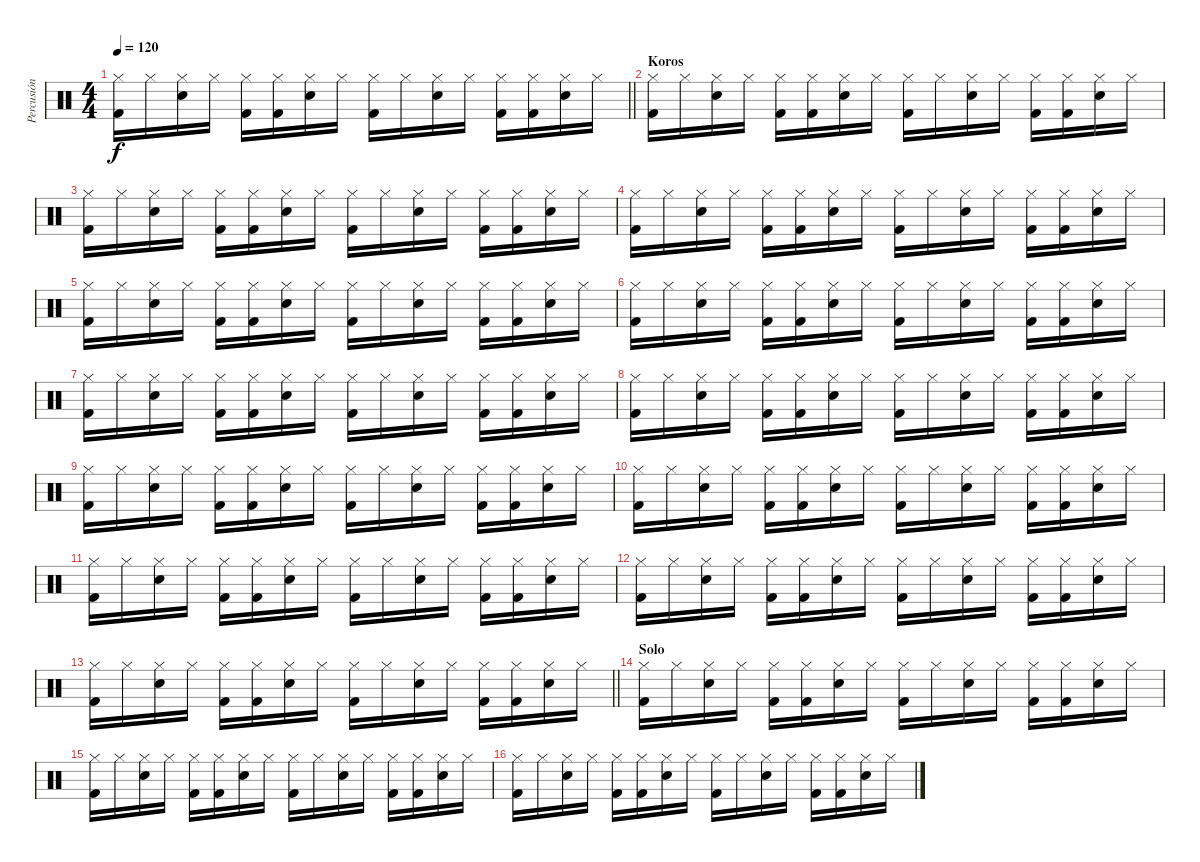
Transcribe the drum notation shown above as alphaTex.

\track ("Percusión" "Percusión") {instrument percussion}
\staff {score}
\articulation defaults
\ts (4 4)
\tempo 120
\clef neutral
\barLineRight lightlight
\ks c
("Kick (hit) 2" "Hi-Hat (closed)").16{dy f} "Hi-Hat (closed)".16 ("Electric Snare (hit)" "Hi-Hat (closed)").16 "Hi-Hat (closed)".16 ("Kick (hit) 2" "Hi-Hat (closed)").16 ("Kick (hit) 2" "Hi-Hat (closed)").16 ("Electric Snare (hit)" "Hi-Hat (closed)").16 "Hi-Hat (closed)".16 ("Kick (hit) 2" "Hi-Hat (closed)").16 "Hi-Hat (closed)".16 ("Electric Snare (hit)" "Hi-Hat (closed)").16 "Hi-Hat (closed)".16 ("Kick (hit) 2" "Hi-Hat (closed)").16 ("Kick (hit) 2" "Hi-Hat (closed)").16 ("Electric Snare (hit)" "Hi-Hat (closed)").16 "Hi-Hat (closed)".16 |
\section ("" "Koros")
("Kick (hit) 2" "Hi-Hat (closed)").16 "Hi-Hat (closed)".16 ("Electric Snare (hit)" "Hi-Hat (closed)").16 "Hi-Hat (closed)".16 ("Kick (hit) 2" "Hi-Hat (closed)").16 ("Kick (hit) 2" "Hi-Hat (closed)").16 ("Electric Snare (hit)" "Hi-Hat (closed)").16 "Hi-Hat (closed)".16 ("Kick (hit) 2" "Hi-Hat (closed)").16 "Hi-Hat (closed)".16 ("Electric Snare (hit)" "Hi-Hat (closed)").16 "Hi-Hat (closed)".16 ("Kick (hit) 2" "Hi-Hat (closed)").16 ("Kick (hit) 2" "Hi-Hat (closed)").16 ("Electric Snare (hit)" "Hi-Hat (closed)").16 "Hi-Hat (closed)".16 |
("Kick (hit) 2" "Hi-Hat (closed)").16 "Hi-Hat (closed)".16 ("Electric Snare (hit)" "Hi-Hat (closed)").16 "Hi-Hat (closed)".16 ("Kick (hit) 2" "Hi-Hat (closed)").16 ("Kick (hit) 2" "Hi-Hat (closed)").16 ("Electric Snare (hit)" "Hi-Hat (closed)").16 "Hi-Hat (closed)".16 ("Kick (hit) 2" "Hi-Hat (closed)").16 "Hi-Hat (closed)".16 ("Electric Snare (hit)" "Hi-Hat (closed)").16 "Hi-Hat (closed)".16 ("Kick (hit) 2" "Hi-Hat (closed)").16 ("Kick (hit) 2" "Hi-Hat (closed)").16 ("Electric Snare (hit)" "Hi-Hat (closed)").16 "Hi-Hat (closed)".16 |
("Kick (hit) 2" "Hi-Hat (closed)").16 "Hi-Hat (closed)".16 ("Electric Snare (hit)" "Hi-Hat (closed)").16 "Hi-Hat (closed)".16 ("Kick (hit) 2" "Hi-Hat (closed)").16 ("Kick (hit) 2" "Hi-Hat (closed)").16 ("Electric Snare (hit)" "Hi-Hat (closed)").16 "Hi-Hat (closed)".16 ("Kick (hit) 2" "Hi-Hat (closed)").16 "Hi-Hat (closed)".16 ("Electric Snare (hit)" "Hi-Hat (closed)").16 "Hi-Hat (closed)".16 ("Kick (hit) 2" "Hi-Hat (closed)").16 ("Kick (hit) 2" "Hi-Hat (closed)").16 ("Electric Snare (hit)" "Hi-Hat (closed)").16 "Hi-Hat (closed)".16 |
("Kick (hit) 2" "Hi-Hat (closed)").16 "Hi-Hat (closed)".16 ("Electric Snare (hit)" "Hi-Hat (closed)").16 "Hi-Hat (closed)".16 ("Kick (hit) 2" "Hi-Hat (closed)").16 ("Kick (hit) 2" "Hi-Hat (closed)").16 ("Electric Snare (hit)" "Hi-Hat (closed)").16 "Hi-Hat (closed)".16 ("Kick (hit) 2" "Hi-Hat (closed)").16 "Hi-Hat (closed)".16 ("Electric Snare (hit)" "Hi-Hat (closed)").16 "Hi-Hat (closed)".16 ("Kick (hit) 2" "Hi-Hat (closed)").16 ("Kick (hit) 2" "Hi-Hat (closed)").16 ("Electric Snare (hit)" "Hi-Hat (closed)").16 "Hi-Hat (closed)".16 |
("Kick (hit) 2" "Hi-Hat (closed)").16 "Hi-Hat (closed)".16 ("Electric Snare (hit)" "Hi-Hat (closed)").16 "Hi-Hat (closed)".16 ("Kick (hit) 2" "Hi-Hat (closed)").16 ("Kick (hit) 2" "Hi-Hat (closed)").16 ("Electric Snare (hit)" "Hi-Hat (closed)").16 "Hi-Hat (closed)".16 ("Kick (hit) 2" "Hi-Hat (closed)").16 "Hi-Hat (closed)".16 ("Electric Snare (hit)" "Hi-Hat (closed)").16 "Hi-Hat (closed)".16 ("Kick (hit) 2" "Hi-Hat (closed)").16 ("Kick (hit) 2" "Hi-Hat (closed)").16 ("Electric Snare (hit)" "Hi-Hat (closed)").16 "Hi-Hat (closed)".16 |
("Kick (hit) 2" "Hi-Hat (closed)").16 "Hi-Hat (closed)".16 ("Electric Snare (hit)" "Hi-Hat (closed)").16 "Hi-Hat (closed)".16 ("Kick (hit) 2" "Hi-Hat (closed)").16 ("Kick (hit) 2" "Hi-Hat (closed)").16 ("Electric Snare (hit)" "Hi-Hat (closed)").16 "Hi-Hat (closed)".16 ("Kick (hit) 2" "Hi-Hat (closed)").16 "Hi-Hat (closed)".16 ("Electric Snare (hit)" "Hi-Hat (closed)").16 "Hi-Hat (closed)".16 ("Kick (hit) 2" "Hi-Hat (closed)").16 ("Kick (hit) 2" "Hi-Hat (closed)").16 ("Electric Snare (hit)" "Hi-Hat (closed)").16 "Hi-Hat (closed)".16 |
("Kick (hit) 2" "Hi-Hat (closed)").16 "Hi-Hat (closed)".16 ("Electric Snare (hit)" "Hi-Hat (closed)").16 "Hi-Hat (closed)".16 ("Kick (hit) 2" "Hi-Hat (closed)").16 ("Kick (hit) 2" "Hi-Hat (closed)").16 ("Electric Snare (hit)" "Hi-Hat (closed)").16 "Hi-Hat (closed)".16 ("Kick (hit) 2" "Hi-Hat (closed)").16 "Hi-Hat (closed)".16 ("Electric Snare (hit)" "Hi-Hat (closed)").16 "Hi-Hat (closed)".16 ("Kick (hit) 2" "Hi-Hat (closed)").16 ("Kick (hit) 2" "Hi-Hat (closed)").16 ("Electric Snare (hit)" "Hi-Hat (closed)").16 "Hi-Hat (closed)".16 |
("Kick (hit) 2" "Hi-Hat (closed)").16 "Hi-Hat (closed)".16 ("Electric Snare (hit)" "Hi-Hat (closed)").16 "Hi-Hat (closed)".16 ("Kick (hit) 2" "Hi-Hat (closed)").16 ("Kick (hit) 2" "Hi-Hat (closed)").16 ("Electric Snare (hit)" "Hi-Hat (closed)").16 "Hi-Hat (closed)".16 ("Kick (hit) 2" "Hi-Hat (closed)").16 "Hi-Hat (closed)".16 ("Electric Snare (hit)" "Hi-Hat (closed)").16 "Hi-Hat (closed)".16 ("Kick (hit) 2" "Hi-Hat (closed)").16 ("Kick (hit) 2" "Hi-Hat (closed)").16 ("Electric Snare (hit)" "Hi-Hat (closed)").16 "Hi-Hat (closed)".16 |
("Kick (hit) 2" "Hi-Hat (closed)").16 "Hi-Hat (closed)".16 ("Electric Snare (hit)" "Hi-Hat (closed)").16 "Hi-Hat (closed)".16 ("Kick (hit) 2" "Hi-Hat (closed)").16 ("Kick (hit) 2" "Hi-Hat (closed)").16 ("Electric Snare (hit)" "Hi-Hat (closed)").16 "Hi-Hat (closed)".16 ("Kick (hit) 2" "Hi-Hat (closed)").16 "Hi-Hat (closed)".16 ("Electric Snare (hit)" "Hi-Hat (closed)").16 "Hi-Hat (closed)".16 ("Kick (hit) 2" "Hi-Hat (closed)").16 ("Kick (hit) 2" "Hi-Hat (closed)").16 ("Electric Snare (hit)" "Hi-Hat (closed)").16 "Hi-Hat (closed)".16 |
("Kick (hit) 2" "Hi-Hat (closed)").16 "Hi-Hat (closed)".16 ("Electric Snare (hit)" "Hi-Hat (closed)").16 "Hi-Hat (closed)".16 ("Kick (hit) 2" "Hi-Hat (closed)").16 ("Kick (hit) 2" "Hi-Hat (closed)").16 ("Electric Snare (hit)" "Hi-Hat (closed)").16 "Hi-Hat (closed)".16 ("Kick (hit) 2" "Hi-Hat (closed)").16 "Hi-Hat (closed)".16 ("Electric Snare (hit)" "Hi-Hat (closed)").16 "Hi-Hat (closed)".16 ("Kick (hit) 2" "Hi-Hat (closed)").16 ("Kick (hit) 2" "Hi-Hat (closed)").16 ("Electric Snare (hit)" "Hi-Hat (closed)").16 "Hi-Hat (closed)".16 |
("Kick (hit) 2" "Hi-Hat (closed)").16 "Hi-Hat (closed)".16 ("Electric Snare (hit)" "Hi-Hat (closed)").16 "Hi-Hat (closed)".16 ("Kick (hit) 2" "Hi-Hat (closed)").16 ("Kick (hit) 2" "Hi-Hat (closed)").16 ("Electric Snare (hit)" "Hi-Hat (closed)").16 "Hi-Hat (closed)".16 ("Kick (hit) 2" "Hi-Hat (closed)").16 "Hi-Hat (closed)".16 ("Electric Snare (hit)" "Hi-Hat (closed)").16 "Hi-Hat (closed)".16 ("Kick (hit) 2" "Hi-Hat (closed)").16 ("Kick (hit) 2" "Hi-Hat (closed)").16 ("Electric Snare (hit)" "Hi-Hat (closed)").16 "Hi-Hat (closed)".16 |
\barLineRight lightlight
("Kick (hit) 2" "Hi-Hat (closed)").16 "Hi-Hat (closed)".16 ("Electric Snare (hit)" "Hi-Hat (closed)").16 "Hi-Hat (closed)".16 ("Kick (hit) 2" "Hi-Hat (closed)").16 ("Kick (hit) 2" "Hi-Hat (closed)").16 ("Electric Snare (hit)" "Hi-Hat (closed)").16 "Hi-Hat (closed)".16 ("Kick (hit) 2" "Hi-Hat (closed)").16 "Hi-Hat (closed)".16 ("Electric Snare (hit)" "Hi-Hat (closed)").16 "Hi-Hat (closed)".16 ("Kick (hit) 2" "Hi-Hat (closed)").16 ("Kick (hit) 2" "Hi-Hat (closed)").16 ("Electric Snare (hit)" "Hi-Hat (closed)").16 "Hi-Hat (closed)".16 |
\section ("" "Solo")
("Kick (hit) 2" "Hi-Hat (closed)").16 "Hi-Hat (closed)".16 ("Electric Snare (hit)" "Hi-Hat (closed)").16 "Hi-Hat (closed)".16 ("Kick (hit) 2" "Hi-Hat (closed)").16 ("Kick (hit) 2" "Hi-Hat (closed)").16 ("Electric Snare (hit)" "Hi-Hat (closed)").16 "Hi-Hat (closed)".16 ("Kick (hit) 2" "Hi-Hat (closed)").16 "Hi-Hat (closed)".16 ("Electric Snare (hit)" "Hi-Hat (closed)").16 "Hi-Hat (closed)".16 ("Kick (hit) 2" "Hi-Hat (closed)").16 ("Kick (hit) 2" "Hi-Hat (closed)").16 ("Electric Snare (hit)" "Hi-Hat (closed)").16 "Hi-Hat (closed)".16 |
("Kick (hit) 2" "Hi-Hat (closed)").16 "Hi-Hat (closed)".16 ("Electric Snare (hit)" "Hi-Hat (closed)").16 "Hi-Hat (closed)".16 ("Kick (hit) 2" "Hi-Hat (closed)").16 ("Kick (hit) 2" "Hi-Hat (closed)").16 ("Electric Snare (hit)" "Hi-Hat (closed)").16 "Hi-Hat (closed)".16 ("Kick (hit) 2" "Hi-Hat (closed)").16 "Hi-Hat (closed)".16 ("Electric Snare (hit)" "Hi-Hat (closed)").16 "Hi-Hat (closed)".16 ("Kick (hit) 2" "Hi-Hat (closed)").16 ("Kick (hit) 2" "Hi-Hat (closed)").16 ("Electric Snare (hit)" "Hi-Hat (closed)").16 "Hi-Hat (closed)".16 |
("Kick (hit) 2" "Hi-Hat (closed)").16 "Hi-Hat (closed)".16 ("Electric Snare (hit)" "Hi-Hat (closed)").16 "Hi-Hat (closed)".16 ("Kick (hit) 2" "Hi-Hat (closed)").16 ("Kick (hit) 2" "Hi-Hat (closed)").16 ("Electric Snare (hit)" "Hi-Hat (closed)").16 "Hi-Hat (closed)".16 ("Kick (hit) 2" "Hi-Hat (closed)").16 "Hi-Hat (closed)".16 ("Electric Snare (hit)" "Hi-Hat (closed)").16 "Hi-Hat (closed)".16 ("Kick (hit) 2" "Hi-Hat (closed)").16 ("Kick (hit) 2" "Hi-Hat (closed)").16 ("Electric Snare (hit)" "Hi-Hat (closed)").16 "Hi-Hat (closed)".16
